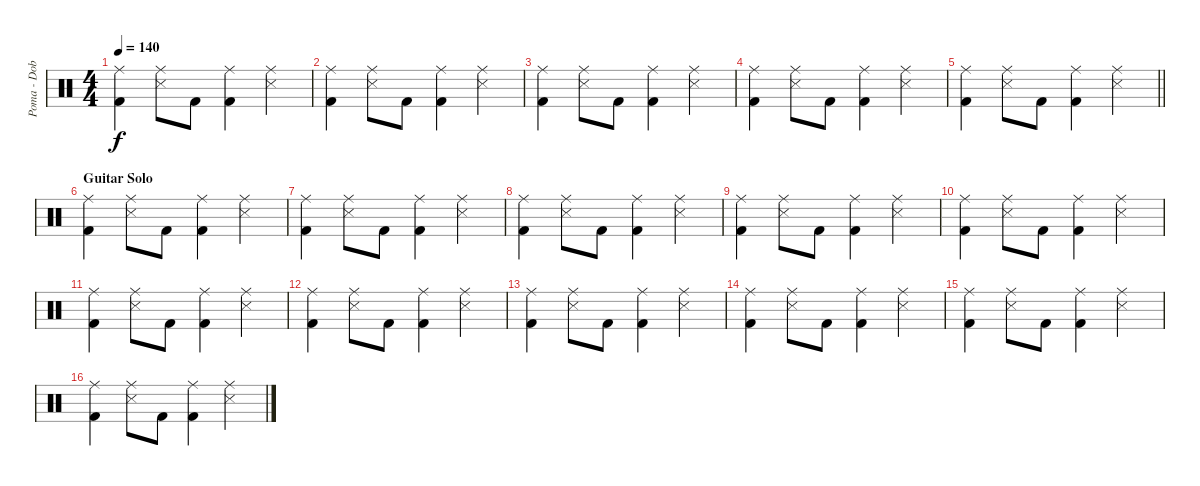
\track ("Poma - Dob" "Poma - Dob") {instrument percussion}
\staff {score}
\articulation defaults
\ts (4 4)
\tempo 140
\clef neutral
\ks c
("Ride (middle)" "Kick (hit) 2").4{dy f} ("Ride (middle)" "Snare (side stick) 3").8 "Kick (hit) 2".8 ("Ride (middle)" "Kick (hit) 2").4 ("Ride (middle)" "Snare (side stick) 3").4 |
("Ride (middle)" "Kick (hit) 2").4 ("Ride (middle)" "Snare (side stick) 3").8 "Kick (hit) 2".8 ("Ride (middle)" "Kick (hit) 2").4 ("Ride (middle)" "Snare (side stick) 3").4 |
("Ride (middle)" "Kick (hit) 2").4 ("Ride (middle)" "Snare (side stick) 3").8 "Kick (hit) 2".8 ("Ride (middle)" "Kick (hit) 2").4 ("Ride (middle)" "Snare (side stick) 3").4 |
("Ride (middle)" "Kick (hit) 2").4 ("Ride (middle)" "Snare (side stick) 3").8 "Kick (hit) 2".8 ("Ride (middle)" "Kick (hit) 2").4 ("Ride (middle)" "Snare (side stick) 3").4 |
\barLineRight lightlight
("Ride (middle)" "Kick (hit) 2").4 ("Ride (middle)" "Snare (side stick) 3").8 "Kick (hit) 2".8 ("Ride (middle)" "Kick (hit) 2").4 ("Ride (middle)" "Snare (side stick) 3").4 |
\section ("" "Guitar Solo")
("Ride (middle)" "Kick (hit) 2").4 ("Ride (middle)" "Snare (side stick) 3").8 "Kick (hit) 2".8 ("Ride (middle)" "Kick (hit) 2").4 ("Ride (middle)" "Snare (side stick) 3").4 |
("Ride (middle)" "Kick (hit) 2").4 ("Ride (middle)" "Snare (side stick) 3").8 "Kick (hit) 2".8 ("Ride (middle)" "Kick (hit) 2").4 ("Ride (middle)" "Snare (side stick) 3").4 |
("Ride (middle)" "Kick (hit) 2").4 ("Ride (middle)" "Snare (side stick) 3").8 "Kick (hit) 2".8 ("Ride (middle)" "Kick (hit) 2").4 ("Ride (middle)" "Snare (side stick) 3").4 |
("Ride (middle)" "Kick (hit) 2").4 ("Ride (middle)" "Snare (side stick) 3").8 "Kick (hit) 2".8 ("Ride (middle)" "Kick (hit) 2").4 ("Ride (middle)" "Snare (side stick) 3").4 |
("Ride (middle)" "Kick (hit) 2").4 ("Ride (middle)" "Snare (side stick) 3").8 "Kick (hit) 2".8 ("Ride (middle)" "Kick (hit) 2").4 ("Ride (middle)" "Snare (side stick) 3").4 |
("Ride (middle)" "Kick (hit) 2").4 ("Ride (middle)" "Snare (side stick) 3").8 "Kick (hit) 2".8 ("Ride (middle)" "Kick (hit) 2").4 ("Ride (middle)" "Snare (side stick) 3").4 |
("Ride (middle)" "Kick (hit) 2").4 ("Ride (middle)" "Snare (side stick) 3").8 "Kick (hit) 2".8 ("Ride (middle)" "Kick (hit) 2").4 ("Ride (middle)" "Snare (side stick) 3").4 |
("Ride (middle)" "Kick (hit) 2").4 ("Ride (middle)" "Snare (side stick) 3").8 "Kick (hit) 2".8 ("Ride (middle)" "Kick (hit) 2").4 ("Ride (middle)" "Snare (side stick) 3").4 |
("Ride (middle)" "Kick (hit) 2").4 ("Ride (middle)" "Snare (side stick) 3").8 "Kick (hit) 2".8 ("Ride (middle)" "Kick (hit) 2").4 ("Ride (middle)" "Snare (side stick) 3").4 |
("Ride (middle)" "Kick (hit) 2").4 ("Ride (middle)" "Snare (side stick) 3").8 "Kick (hit) 2".8 ("Ride (middle)" "Kick (hit) 2").4 ("Ride (middle)" "Snare (side stick) 3").4 |
("Ride (middle)" "Kick (hit) 2").4 ("Ride (middle)" "Snare (side stick) 3").8 "Kick (hit) 2".8 ("Ride (middle)" "Kick (hit) 2").4 ("Ride (middle)" "Snare (side stick) 3").4
